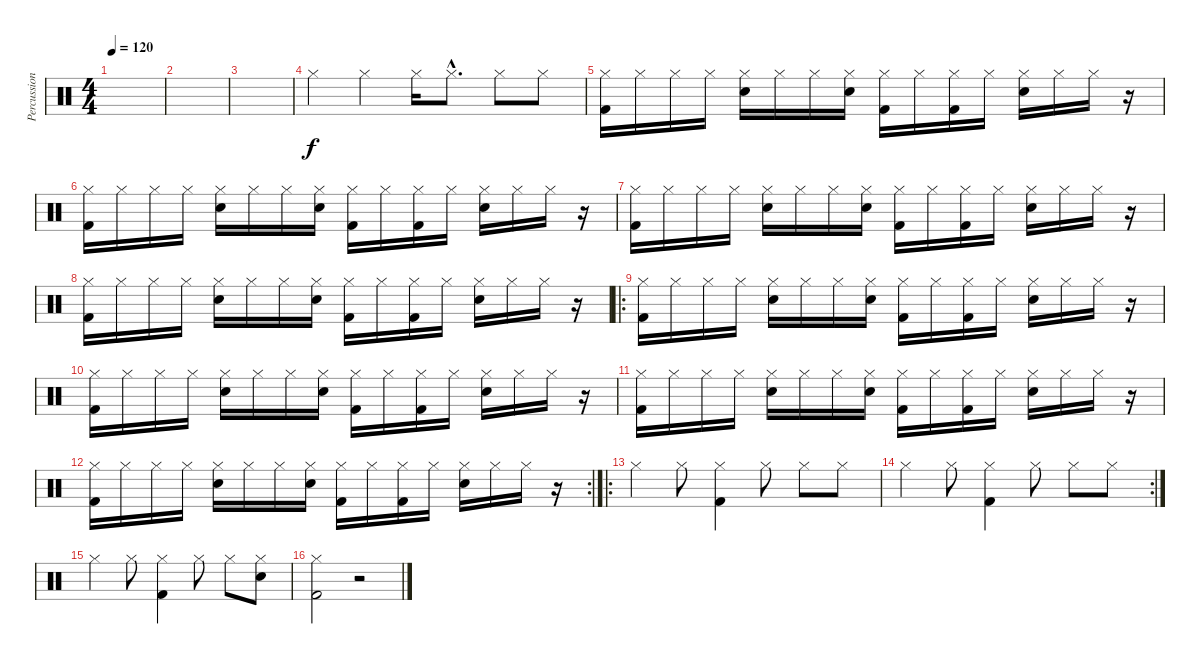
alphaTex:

\track ("Percussion" "Percussion") {instrument percussion}
\staff {score}
\articulation defaults
\ts (4 4)
\tempo 120
\clef neutral
\ks c
|
|
|
"Hi-Hat (closed)".4 "Hi-Hat (closed)".4 "Hi-Hat (closed)".16 "Hi-Hat (closed)"{hac}.8{d} "Hi-Hat (closed)".8 "Hi-Hat (closed)".8 |
("Hi-Hat (closed)" "Kick (hit) 2").16 "Hi-Hat (closed)".16 "Hi-Hat (closed)".16 "Hi-Hat (closed)".16 ("Hi-Hat (closed)" "Snare (hit) 2").16 "Hi-Hat (closed)".16 "Hi-Hat (closed)".16 ("Hi-Hat (closed)" "Snare (hit) 2").16 ("Hi-Hat (closed)" "Kick (hit) 2").16 "Hi-Hat (closed)".16 ("Hi-Hat (closed)" "Kick (hit) 2").16 "Hi-Hat (closed)".16 ("Hi-Hat (closed)" "Snare (hit) 2").16 "Hi-Hat (closed)".16 "Hi-Hat (closed)".16 r.16 |
("Hi-Hat (closed)" "Kick (hit) 2").16 "Hi-Hat (closed)".16 "Hi-Hat (closed)".16 "Hi-Hat (closed)".16 ("Hi-Hat (closed)" "Snare (hit) 2").16 "Hi-Hat (closed)".16 "Hi-Hat (closed)".16 ("Hi-Hat (closed)" "Snare (hit) 2").16 ("Hi-Hat (closed)" "Kick (hit) 2").16 "Hi-Hat (closed)".16 ("Hi-Hat (closed)" "Kick (hit) 2").16 "Hi-Hat (closed)".16 ("Hi-Hat (closed)" "Snare (hit) 2").16 "Hi-Hat (closed)".16 "Hi-Hat (closed)".16 r.16 |
("Hi-Hat (closed)" "Kick (hit) 2").16 "Hi-Hat (closed)".16 "Hi-Hat (closed)".16 "Hi-Hat (closed)".16 ("Hi-Hat (closed)" "Snare (hit) 2").16 "Hi-Hat (closed)".16 "Hi-Hat (closed)".16 ("Hi-Hat (closed)" "Snare (hit) 2").16 ("Hi-Hat (closed)" "Kick (hit) 2").16 "Hi-Hat (closed)".16 ("Hi-Hat (closed)" "Kick (hit) 2").16 "Hi-Hat (closed)".16 ("Hi-Hat (closed)" "Snare (hit) 2").16 "Hi-Hat (closed)".16 "Hi-Hat (closed)".16 r.16 |
("Hi-Hat (closed)" "Kick (hit) 2").16 "Hi-Hat (closed)".16 "Hi-Hat (closed)".16 "Hi-Hat (closed)".16 ("Hi-Hat (closed)" "Snare (hit) 2").16 "Hi-Hat (closed)".16 "Hi-Hat (closed)".16 ("Hi-Hat (closed)" "Snare (hit) 2").16 ("Hi-Hat (closed)" "Kick (hit) 2").16 "Hi-Hat (closed)".16 ("Hi-Hat (closed)" "Kick (hit) 2").16 "Hi-Hat (closed)".16 ("Hi-Hat (closed)" "Snare (hit) 2").16 "Hi-Hat (closed)".16 "Hi-Hat (closed)".16 r.16 |
\ro
("Hi-Hat (closed)" "Kick (hit) 2").16 "Hi-Hat (closed)".16 "Hi-Hat (closed)".16 "Hi-Hat (closed)".16 ("Hi-Hat (closed)" "Snare (hit) 2").16 "Hi-Hat (closed)".16 "Hi-Hat (closed)".16 ("Hi-Hat (closed)" "Snare (hit) 2").16 ("Hi-Hat (closed)" "Kick (hit) 2").16 "Hi-Hat (closed)".16 ("Hi-Hat (closed)" "Kick (hit) 2").16 "Hi-Hat (closed)".16 ("Hi-Hat (closed)" "Snare (hit) 2").16 "Hi-Hat (closed)".16 "Hi-Hat (closed)".16 r.16 |
("Hi-Hat (closed)" "Kick (hit) 2").16 "Hi-Hat (closed)".16 "Hi-Hat (closed)".16 "Hi-Hat (closed)".16 ("Hi-Hat (closed)" "Snare (hit) 2").16 "Hi-Hat (closed)".16 "Hi-Hat (closed)".16 ("Hi-Hat (closed)" "Snare (hit) 2").16 ("Hi-Hat (closed)" "Kick (hit) 2").16 "Hi-Hat (closed)".16 ("Hi-Hat (closed)" "Kick (hit) 2").16 "Hi-Hat (closed)".16 ("Hi-Hat (closed)" "Snare (hit) 2").16 "Hi-Hat (closed)".16 "Hi-Hat (closed)".16 r.16 |
("Hi-Hat (closed)" "Kick (hit) 2").16 "Hi-Hat (closed)".16 "Hi-Hat (closed)".16 "Hi-Hat (closed)".16 ("Hi-Hat (closed)" "Snare (hit) 2").16 "Hi-Hat (closed)".16 "Hi-Hat (closed)".16 ("Hi-Hat (closed)" "Snare (hit) 2").16 ("Hi-Hat (closed)" "Kick (hit) 2").16 "Hi-Hat (closed)".16 ("Hi-Hat (closed)" "Kick (hit) 2").16 "Hi-Hat (closed)".16 ("Hi-Hat (closed)" "Snare (hit) 2").16 "Hi-Hat (closed)".16 "Hi-Hat (closed)".16 r.16 |
\rc 2
("Hi-Hat (closed)" "Kick (hit) 2").16 "Hi-Hat (closed)".16 "Hi-Hat (closed)".16 "Hi-Hat (closed)".16 ("Hi-Hat (closed)" "Snare (hit) 2").16 "Hi-Hat (closed)".16 "Hi-Hat (closed)".16 ("Hi-Hat (closed)" "Snare (hit) 2").16 ("Hi-Hat (closed)" "Kick (hit) 2").16 "Hi-Hat (closed)".16 ("Hi-Hat (closed)" "Kick (hit) 2").16 "Hi-Hat (closed)".16 ("Hi-Hat (closed)" "Snare (hit) 2").16 "Hi-Hat (closed)".16 "Hi-Hat (closed)".16 r.16 |
\ro "Hi-Hat (closed)".4 "Hi-Hat (closed)".8
("Hi-Hat (closed)" "Kick (hit) 2").4 "Hi-Hat (closed)".8 "Hi-Hat (closed)".8 "Hi-Hat (closed)".8 |
\rc 2 "Hi-Hat (closed)".4 "Hi-Hat (closed)".8
("Hi-Hat (closed)" "Kick (hit) 2").4 "Hi-Hat (closed)".8 "Hi-Hat (closed)".8 "Hi-Hat (closed)".8 |
"Hi-Hat (closed)".4 "Hi-Hat (closed)".8 ("Hi-Hat (closed)" "Kick (hit) 2").4 "Hi-Hat (closed)".8 "Hi-Hat (closed)".8 ("Hi-Hat (closed)" "Snare (hit) 2").8 |
("Hi-Hat (closed)" "Kick (hit) 2").2 r.2
